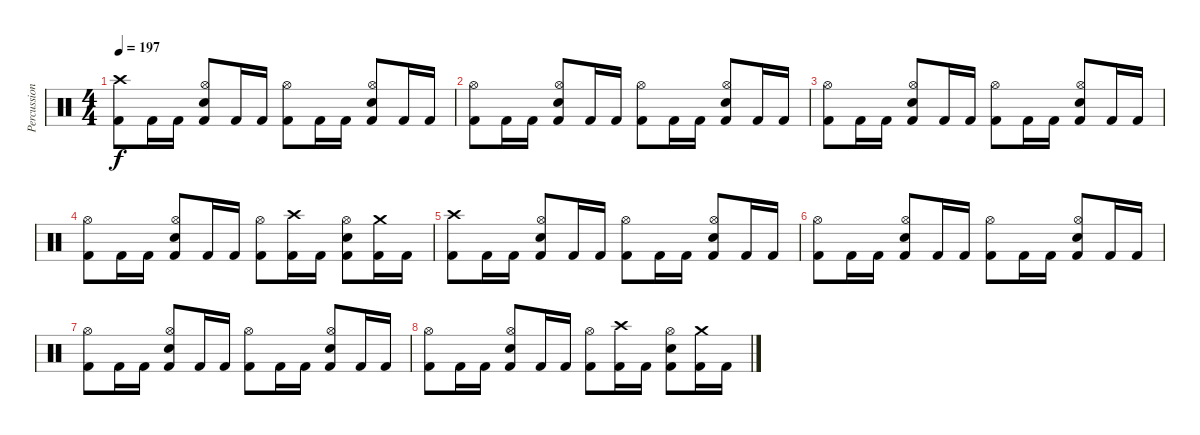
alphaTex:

\track ("Percussion" "Percussion") {instrument percussion}
\staff {score}
\articulation defaults
\ts (4 4)
\tempo 197
\clef neutral
\ks c
("Crash high (hit)" "Kick (hit) 2").8{dy f} "Kick (hit) 2".16 "Kick (hit) 2".16 ("Hi-Hat (open)" "Electric Snare (hit)" "Kick (hit) 2").8 "Kick (hit) 2".16 "Kick (hit) 2".16 ("Hi-Hat (open)" "Kick (hit) 2").8 "Kick (hit) 2".16 "Kick (hit) 2".16 ("Hi-Hat (open)" "Electric Snare (hit)" "Kick (hit) 2").8 "Kick (hit) 2".16 "Kick (hit) 2".16 |
("Hi-Hat (open)" "Kick (hit) 2").8 "Kick (hit) 2".16 "Kick (hit) 2".16 ("Hi-Hat (open)" "Electric Snare (hit)" "Kick (hit) 2").8 "Kick (hit) 2".16 "Kick (hit) 2".16 ("Hi-Hat (open)" "Kick (hit) 2").8 "Kick (hit) 2".16 "Kick (hit) 2".16 ("Hi-Hat (open)" "Electric Snare (hit)" "Kick (hit) 2").8 "Kick (hit) 2".16 "Kick (hit) 2".16 |
("Hi-Hat (open)" "Kick (hit) 2").8 "Kick (hit) 2".16 "Kick (hit) 2".16 ("Hi-Hat (open)" "Electric Snare (hit)" "Kick (hit) 2").8 "Kick (hit) 2".16 "Kick (hit) 2".16 ("Hi-Hat (open)" "Kick (hit) 2").8 "Kick (hit) 2".16 "Kick (hit) 2".16 ("Hi-Hat (open)" "Electric Snare (hit)" "Kick (hit) 2").8 "Kick (hit) 2".16 "Kick (hit) 2".16 |
("Hi-Hat (open)" "Kick (hit) 2").8 "Kick (hit) 2".16 "Kick (hit) 2".16 ("Hi-Hat (open)" "Electric Snare (hit)" "Kick (hit) 2").8 "Kick (hit) 2".16 "Kick (hit) 2".16 ("Hi-Hat (open)" "Kick (hit) 2").8 ("Crash high (hit)" "Kick (hit) 2").16 "Kick (hit) 2".16 ("Hi-Hat (open)" "Electric Snare (hit)" "Kick (hit) 2").8 ("Crash medium (hit)" "Kick (hit) 2").16 "Kick (hit) 2".16 |
("Crash high (hit)" "Kick (hit) 2").8 "Kick (hit) 2".16 "Kick (hit) 2".16 ("Hi-Hat (open)" "Electric Snare (hit)" "Kick (hit) 2").8 "Kick (hit) 2".16 "Kick (hit) 2".16 ("Hi-Hat (open)" "Kick (hit) 2").8 "Kick (hit) 2".16 "Kick (hit) 2".16 ("Hi-Hat (open)" "Electric Snare (hit)" "Kick (hit) 2").8 "Kick (hit) 2".16 "Kick (hit) 2".16 |
("Hi-Hat (open)" "Kick (hit) 2").8 "Kick (hit) 2".16 "Kick (hit) 2".16 ("Hi-Hat (open)" "Electric Snare (hit)" "Kick (hit) 2").8 "Kick (hit) 2".16 "Kick (hit) 2".16 ("Hi-Hat (open)" "Kick (hit) 2").8 "Kick (hit) 2".16 "Kick (hit) 2".16 ("Hi-Hat (open)" "Electric Snare (hit)" "Kick (hit) 2").8 "Kick (hit) 2".16 "Kick (hit) 2".16 |
("Hi-Hat (open)" "Kick (hit) 2").8 "Kick (hit) 2".16 "Kick (hit) 2".16 ("Hi-Hat (open)" "Electric Snare (hit)" "Kick (hit) 2").8 "Kick (hit) 2".16 "Kick (hit) 2".16 ("Hi-Hat (open)" "Kick (hit) 2").8 "Kick (hit) 2".16 "Kick (hit) 2".16 ("Hi-Hat (open)" "Electric Snare (hit)" "Kick (hit) 2").8 "Kick (hit) 2".16 "Kick (hit) 2".16 |
("Hi-Hat (open)" "Kick (hit) 2").8 "Kick (hit) 2".16 "Kick (hit) 2".16 ("Hi-Hat (open)" "Electric Snare (hit)" "Kick (hit) 2").8 "Kick (hit) 2".16 "Kick (hit) 2".16 ("Hi-Hat (open)" "Kick (hit) 2").8 ("Crash high (hit)" "Kick (hit) 2").16 "Kick (hit) 2".16 ("Hi-Hat (open)" "Electric Snare (hit)" "Kick (hit) 2").8 ("Crash medium (hit)" "Kick (hit) 2").16 "Kick (hit) 2".16
